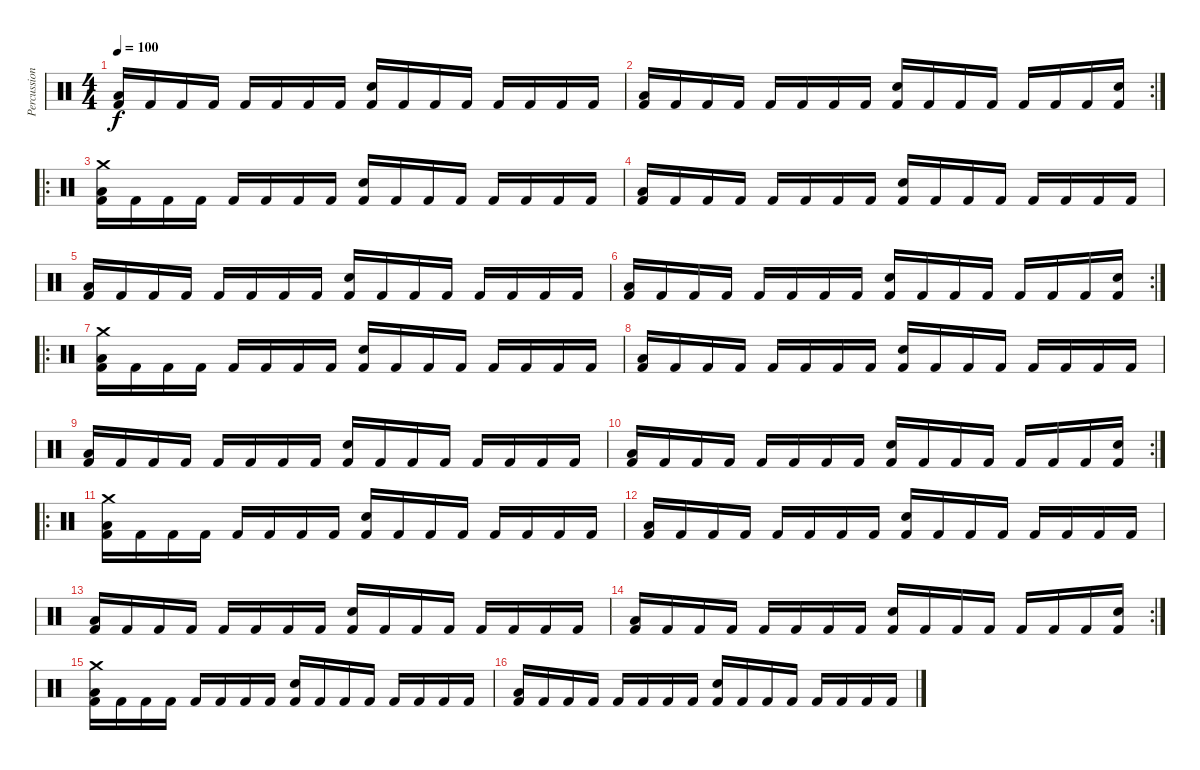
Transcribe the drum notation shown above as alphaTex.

\track ("Percussion" "Percussion") {instrument percussion}
\staff {score}
\articulation defaults
\ts (4 4)
\tempo 100
\clef neutral
\ks c
("Low Tom (hit)" "Kick (hit) 2").16{dy f} "Kick (hit) 2".16 "Kick (hit) 2".16 "Kick (hit) 2".16 "Kick (hit) 2".16 "Kick (hit) 2".16 "Kick (hit) 2".16 "Kick (hit) 2".16 ("Electric Snare (hit)" "Kick (hit) 2").16 "Kick (hit) 2".16 "Kick (hit) 2".16 "Kick (hit) 2".16 "Kick (hit) 2".16 "Kick (hit) 2".16 "Kick (hit) 2".16 "Kick (hit) 2".16 |
\rc 2
("Low Tom (hit)" "Kick (hit) 2").16 "Kick (hit) 2".16 "Kick (hit) 2".16 "Kick (hit) 2".16 "Kick (hit) 2".16 "Kick (hit) 2".16 "Kick (hit) 2".16 "Kick (hit) 2".16 ("Electric Snare (hit)" "Kick (hit) 2").16 "Kick (hit) 2".16 "Kick (hit) 2".16 "Kick (hit) 2".16 "Kick (hit) 2".16 "Kick (hit) 2".16 "Kick (hit) 2".16 ("Electric Snare (hit)" "Kick (hit) 2").16 |
\ro
("Crash medium (hit)" "Low Tom (hit)" "Kick (hit) 2").16 "Kick (hit) 2".16 "Kick (hit) 2".16 "Kick (hit) 2".16 "Kick (hit) 2".16 "Kick (hit) 2".16 "Kick (hit) 2".16 "Kick (hit) 2".16 ("Electric Snare (hit)" "Kick (hit) 2").16 "Kick (hit) 2".16 "Kick (hit) 2".16 "Kick (hit) 2".16 "Kick (hit) 2".16 "Kick (hit) 2".16 "Kick (hit) 2".16 "Kick (hit) 2".16 |
("Low Tom (hit)" "Kick (hit) 2").16 "Kick (hit) 2".16 "Kick (hit) 2".16 "Kick (hit) 2".16 "Kick (hit) 2".16 "Kick (hit) 2".16 "Kick (hit) 2".16 "Kick (hit) 2".16 ("Electric Snare (hit)" "Kick (hit) 2").16 "Kick (hit) 2".16 "Kick (hit) 2".16 "Kick (hit) 2".16 "Kick (hit) 2".16 "Kick (hit) 2".16 "Kick (hit) 2".16 "Kick (hit) 2".16 |
("Low Tom (hit)" "Kick (hit) 2").16 "Kick (hit) 2".16 "Kick (hit) 2".16 "Kick (hit) 2".16 "Kick (hit) 2".16 "Kick (hit) 2".16 "Kick (hit) 2".16 "Kick (hit) 2".16 ("Electric Snare (hit)" "Kick (hit) 2").16 "Kick (hit) 2".16 "Kick (hit) 2".16 "Kick (hit) 2".16 "Kick (hit) 2".16 "Kick (hit) 2".16 "Kick (hit) 2".16 "Kick (hit) 2".16 |
\rc 2
("Low Tom (hit)" "Kick (hit) 2").16 "Kick (hit) 2".16 "Kick (hit) 2".16 "Kick (hit) 2".16 "Kick (hit) 2".16 "Kick (hit) 2".16 "Kick (hit) 2".16 "Kick (hit) 2".16 ("Electric Snare (hit)" "Kick (hit) 2").16 "Kick (hit) 2".16 "Kick (hit) 2".16 "Kick (hit) 2".16 "Kick (hit) 2".16 "Kick (hit) 2".16 "Kick (hit) 2".16 ("Electric Snare (hit)" "Kick (hit) 2").16 |
\ro
("Crash medium (hit)" "Low Tom (hit)" "Kick (hit) 2").16 "Kick (hit) 2".16 "Kick (hit) 2".16 "Kick (hit) 2".16 "Kick (hit) 2".16 "Kick (hit) 2".16 "Kick (hit) 2".16 "Kick (hit) 2".16 ("Electric Snare (hit)" "Kick (hit) 2").16 "Kick (hit) 2".16 "Kick (hit) 2".16 "Kick (hit) 2".16 "Kick (hit) 2".16 "Kick (hit) 2".16 "Kick (hit) 2".16 "Kick (hit) 2".16 |
("Low Tom (hit)" "Kick (hit) 2").16 "Kick (hit) 2".16 "Kick (hit) 2".16 "Kick (hit) 2".16 "Kick (hit) 2".16 "Kick (hit) 2".16 "Kick (hit) 2".16 "Kick (hit) 2".16 ("Electric Snare (hit)" "Kick (hit) 2").16 "Kick (hit) 2".16 "Kick (hit) 2".16 "Kick (hit) 2".16 "Kick (hit) 2".16 "Kick (hit) 2".16 "Kick (hit) 2".16 "Kick (hit) 2".16 |
("Low Tom (hit)" "Kick (hit) 2").16 "Kick (hit) 2".16 "Kick (hit) 2".16 "Kick (hit) 2".16 "Kick (hit) 2".16 "Kick (hit) 2".16 "Kick (hit) 2".16 "Kick (hit) 2".16 ("Electric Snare (hit)" "Kick (hit) 2").16 "Kick (hit) 2".16 "Kick (hit) 2".16 "Kick (hit) 2".16 "Kick (hit) 2".16 "Kick (hit) 2".16 "Kick (hit) 2".16 "Kick (hit) 2".16 |
\rc 2
("Low Tom (hit)" "Kick (hit) 2").16 "Kick (hit) 2".16 "Kick (hit) 2".16 "Kick (hit) 2".16 "Kick (hit) 2".16 "Kick (hit) 2".16 "Kick (hit) 2".16 "Kick (hit) 2".16 ("Electric Snare (hit)" "Kick (hit) 2").16 "Kick (hit) 2".16 "Kick (hit) 2".16 "Kick (hit) 2".16 "Kick (hit) 2".16 "Kick (hit) 2".16 "Kick (hit) 2".16 ("Electric Snare (hit)" "Kick (hit) 2").16 |
\ro
("Crash medium (hit)" "Low Tom (hit)" "Kick (hit) 2").16 "Kick (hit) 2".16 "Kick (hit) 2".16 "Kick (hit) 2".16 "Kick (hit) 2".16 "Kick (hit) 2".16 "Kick (hit) 2".16 "Kick (hit) 2".16 ("Electric Snare (hit)" "Kick (hit) 2").16 "Kick (hit) 2".16 "Kick (hit) 2".16 "Kick (hit) 2".16 "Kick (hit) 2".16 "Kick (hit) 2".16 "Kick (hit) 2".16 "Kick (hit) 2".16 |
("Low Tom (hit)" "Kick (hit) 2").16 "Kick (hit) 2".16 "Kick (hit) 2".16 "Kick (hit) 2".16 "Kick (hit) 2".16 "Kick (hit) 2".16 "Kick (hit) 2".16 "Kick (hit) 2".16 ("Electric Snare (hit)" "Kick (hit) 2").16 "Kick (hit) 2".16 "Kick (hit) 2".16 "Kick (hit) 2".16 "Kick (hit) 2".16 "Kick (hit) 2".16 "Kick (hit) 2".16 "Kick (hit) 2".16 |
("Low Tom (hit)" "Kick (hit) 2").16 "Kick (hit) 2".16 "Kick (hit) 2".16 "Kick (hit) 2".16 "Kick (hit) 2".16 "Kick (hit) 2".16 "Kick (hit) 2".16 "Kick (hit) 2".16 ("Electric Snare (hit)" "Kick (hit) 2").16 "Kick (hit) 2".16 "Kick (hit) 2".16 "Kick (hit) 2".16 "Kick (hit) 2".16 "Kick (hit) 2".16 "Kick (hit) 2".16 "Kick (hit) 2".16 |
\rc 2
("Low Tom (hit)" "Kick (hit) 2").16 "Kick (hit) 2".16 "Kick (hit) 2".16 "Kick (hit) 2".16 "Kick (hit) 2".16 "Kick (hit) 2".16 "Kick (hit) 2".16 "Kick (hit) 2".16 ("Electric Snare (hit)" "Kick (hit) 2").16 "Kick (hit) 2".16 "Kick (hit) 2".16 "Kick (hit) 2".16 "Kick (hit) 2".16 "Kick (hit) 2".16 "Kick (hit) 2".16 ("Electric Snare (hit)" "Kick (hit) 2").16 |
("Crash medium (hit)" "Low Tom (hit)" "Kick (hit) 2").16 "Kick (hit) 2".16 "Kick (hit) 2".16 "Kick (hit) 2".16 "Kick (hit) 2".16 "Kick (hit) 2".16 "Kick (hit) 2".16 "Kick (hit) 2".16 ("Electric Snare (hit)" "Kick (hit) 2").16 "Kick (hit) 2".16 "Kick (hit) 2".16 "Kick (hit) 2".16 "Kick (hit) 2".16 "Kick (hit) 2".16 "Kick (hit) 2".16 "Kick (hit) 2".16 |
("Low Tom (hit)" "Kick (hit) 2").16 "Kick (hit) 2".16 "Kick (hit) 2".16 "Kick (hit) 2".16 "Kick (hit) 2".16 "Kick (hit) 2".16 "Kick (hit) 2".16 "Kick (hit) 2".16 ("Electric Snare (hit)" "Kick (hit) 2").16 "Kick (hit) 2".16 "Kick (hit) 2".16 "Kick (hit) 2".16 "Kick (hit) 2".16 "Kick (hit) 2".16 "Kick (hit) 2".16 "Kick (hit) 2".16
